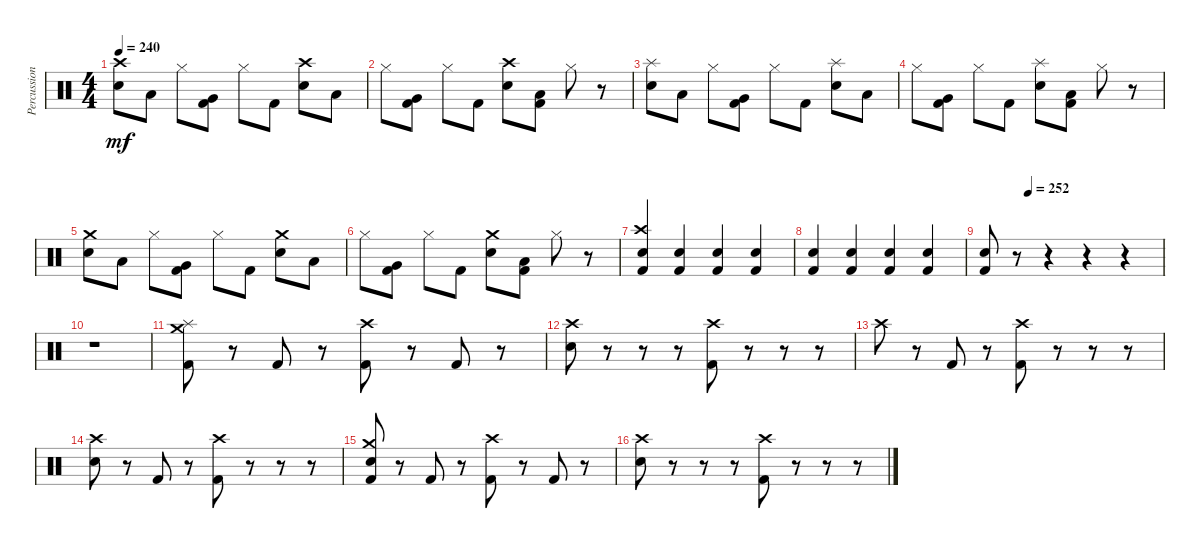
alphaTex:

\track ("Percussion" "Percussion") {instrument percussion}
\staff {score}
\articulation defaults
\ts (4 4)
\tempo 240
\clef neutral
\ks c
("Electric Snare (hit)" "Crash high (hit)").8{dy mf} "Low Tom (hit)".8 "Hi-Hat (closed)".8 ("Very Low Tom (hit)" "Kick (hit) 2").8 "Hi-Hat (closed)".8 "Kick (hit) 2".8 ("Electric Snare (hit)" "Crash high (hit)").8 "Low Tom (hit)".8 |
"Hi-Hat (closed)".8 ("Kick (hit) 2" "Very Low Tom (hit)").8 "Hi-Hat (closed)".8 "Kick (hit) 2".8 ("Electric Snare (hit)" "Crash high (hit)").8 ("Low Tom (hit)" "Kick (hit) 2").8 "Hi-Hat (closed)".8 r.8 |
("Electric Snare (hit)" "Splash (hit)").8 "Low Tom (hit)".8 "Hi-Hat (closed)".8 ("Very Low Tom (hit)" "Kick (hit) 2").8 "Hi-Hat (closed)".8 "Kick (hit) 2".8 ("Electric Snare (hit)" "Splash (hit)").8 "Low Tom (hit)".8 |
"Hi-Hat (closed)".8 ("Kick (hit) 2" "Very Low Tom (hit)").8 "Hi-Hat (closed)".8 "Kick (hit) 2".8 ("Electric Snare (hit)" "Splash (hit)").8 ("Low Tom (hit)" "Kick (hit) 2").8 "Hi-Hat (closed)".8 r.8 |
("Electric Snare (hit)" "Crash medium (hit)").8 "Low Tom (hit)".8 "Hi-Hat (closed)".8 ("Very Low Tom (hit)" "Kick (hit) 2").8 "Hi-Hat (closed)".8 "Kick (hit) 2".8 ("Electric Snare (hit)" "Crash medium (hit)").8 "Low Tom (hit)".8 |
"Hi-Hat (closed)".8 ("Kick (hit) 2" "Very Low Tom (hit)").8 "Hi-Hat (closed)".8 "Kick (hit) 2".8 ("Electric Snare (hit)" "Crash medium (hit)").8 ("Low Tom (hit)" "Kick (hit) 2").8 "Hi-Hat (closed)".8 r.8 |
("Electric Snare (hit)" "Crash high (hit)" "Kick (hit) 2").4 ("Electric Snare (hit)" "Kick (hit) 2").4{volume 10} ("Electric Snare (hit)" "Kick (hit) 2").4{volume 16} ("Electric Snare (hit)" "Kick (hit) 2").4 |
("Electric Snare (hit)" "Kick (hit) 2").4 ("Electric Snare (hit)" "Kick (hit) 2").4 ("Electric Snare (hit)" "Kick (hit) 2").4 ("Electric Snare (hit)" "Kick (hit) 2").4 |
\tempo (252 0.25)
("Electric Snare (hit)" "Kick (hit) 2").8 r.8 r.4 r.4 r.4 |
r.1 |
("Kick (hit) 2" "Splash (hit)" "Crash medium (hit)").8 r.8 "Kick (hit) 2".8 r.8 ("Kick (hit) 2" "Crash high (hit)").8 r.8 "Kick (hit) 2".8 r.8 |
("Electric Snare (hit)" "Crash high (hit)").8 r.8 r.8 r.8 ("Kick (hit) 2" "Crash high (hit)").8 r.8 r.8 r.8 |
"Crash high (hit)".8 r.8 "Kick (hit) 2".8 r.8 ("Kick (hit) 2" "Crash high (hit)").8 r.8 r.8 r.8 |
("Electric Snare (hit)" "Crash high (hit)").8 r.8 "Kick (hit) 2".8 r.8 ("Kick (hit) 2" "Crash high (hit)").8 r.8 r.8 r.8 |
("Kick (hit) 2" "Crash medium (hit)" "Snare (hit)").8 r.8 "Kick (hit) 2".8 r.8 ("Kick (hit) 2" "Crash high (hit)").8 r.8 "Kick (hit) 2".8 r.8 |
("Electric Snare (hit)" "Crash high (hit)").8 r.8 r.8 r.8 ("Kick (hit) 2" "Crash high (hit)").8 r.8 r.8 r.8
